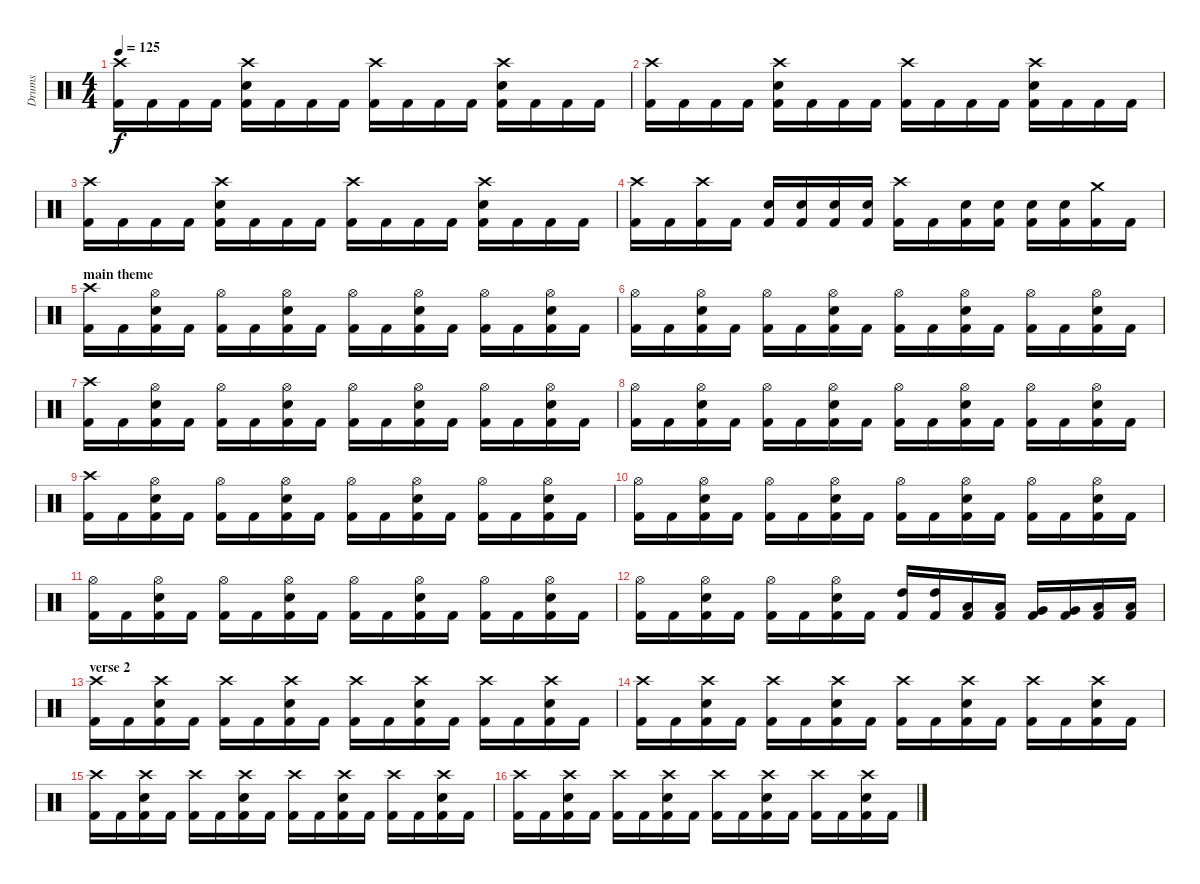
\track ("Drums" "Drums") {instrument percussion}
\staff {score}
\articulation defaults
\ts (4 4)
\tempo 125
\clef neutral
\ks c
("Crash high (hit)" "Kick (hit) 2").16{dy f} "Kick (hit) 2".16 "Kick (hit) 2".16 "Kick (hit) 2".16 ("Crash high (hit)" "Electric Snare (hit)" "Kick (hit) 2").16 "Kick (hit) 2".16 "Kick (hit) 2".16 "Kick (hit) 2".16 ("Crash high (hit)" "Kick (hit) 2").16 "Kick (hit) 2".16 "Kick (hit) 2".16 "Kick (hit) 2".16 ("Crash high (hit)" "Electric Snare (hit)" "Kick (hit) 2").16 "Kick (hit) 2".16 "Kick (hit) 2".16 "Kick (hit) 2".16 |
("Crash high (hit)" "Kick (hit) 2").16 "Kick (hit) 2".16 "Kick (hit) 2".16 "Kick (hit) 2".16 ("Crash high (hit)" "Electric Snare (hit)" "Kick (hit) 2").16 "Kick (hit) 2".16 "Kick (hit) 2".16 "Kick (hit) 2".16 ("Crash high (hit)" "Kick (hit) 2").16 "Kick (hit) 2".16 "Kick (hit) 2".16 "Kick (hit) 2".16 ("Crash high (hit)" "Electric Snare (hit)" "Kick (hit) 2").16 "Kick (hit) 2".16 "Kick (hit) 2".16 "Kick (hit) 2".16 |
("Crash high (hit)" "Kick (hit) 2").16 "Kick (hit) 2".16 "Kick (hit) 2".16 "Kick (hit) 2".16 ("Crash high (hit)" "Electric Snare (hit)" "Kick (hit) 2").16 "Kick (hit) 2".16 "Kick (hit) 2".16 "Kick (hit) 2".16 ("Crash high (hit)" "Kick (hit) 2").16 "Kick (hit) 2".16 "Kick (hit) 2".16 "Kick (hit) 2".16 ("Crash high (hit)" "Electric Snare (hit)" "Kick (hit) 2").16 "Kick (hit) 2".16 "Kick (hit) 2".16 "Kick (hit) 2".16 |
("Crash high (hit)" "Kick (hit) 2").16 "Kick (hit) 2".16 ("Crash high (hit)" "Kick (hit) 2").16 "Kick (hit) 2".16 ("Electric Snare (hit)" "Kick (hit) 2").16 ("Electric Snare (hit)" "Kick (hit) 2").16 ("Electric Snare (hit)" "Kick (hit) 2").16 ("Electric Snare (hit)" "Kick (hit) 2").16 ("Crash high (hit)" "Kick (hit) 2").16 "Kick (hit) 2".16 ("Electric Snare (hit)" "Kick (hit) 2").16 ("Electric Snare (hit)" "Kick (hit) 2").16 ("Electric Snare (hit)" "Kick (hit) 2").16 ("Electric Snare (hit)" "Kick (hit) 2").16 ("Crash medium (hit)" "Kick (hit) 2").16 "Kick (hit) 2".16 |
\section ("" "main theme")
("Crash high (hit)" "Kick (hit) 2").16 "Kick (hit) 2".16 ("Hi-Hat (open)" "Electric Snare (hit)" "Kick (hit) 2").16 "Kick (hit) 2".16 ("Hi-Hat (open)" "Kick (hit) 2").16 "Kick (hit) 2".16 ("Hi-Hat (open)" "Electric Snare (hit)" "Kick (hit) 2").16 "Kick (hit) 2".16 ("Hi-Hat (open)" "Kick (hit) 2").16 "Kick (hit) 2".16 ("Hi-Hat (open)" "Electric Snare (hit)" "Kick (hit) 2").16 "Kick (hit) 2".16 ("Hi-Hat (open)" "Kick (hit) 2").16 "Kick (hit) 2".16 ("Hi-Hat (open)" "Electric Snare (hit)" "Kick (hit) 2").16 "Kick (hit) 2".16 |
("Hi-Hat (open)" "Kick (hit) 2").16 "Kick (hit) 2".16 ("Hi-Hat (open)" "Electric Snare (hit)" "Kick (hit) 2").16 "Kick (hit) 2".16 ("Hi-Hat (open)" "Kick (hit) 2").16 "Kick (hit) 2".16 ("Hi-Hat (open)" "Electric Snare (hit)" "Kick (hit) 2").16 "Kick (hit) 2".16 ("Hi-Hat (open)" "Kick (hit) 2").16 "Kick (hit) 2".16 ("Hi-Hat (open)" "Electric Snare (hit)" "Kick (hit) 2").16 "Kick (hit) 2".16 ("Hi-Hat (open)" "Kick (hit) 2").16 "Kick (hit) 2".16 ("Hi-Hat (open)" "Electric Snare (hit)" "Kick (hit) 2").16 "Kick (hit) 2".16 |
("Crash high (hit)" "Kick (hit) 2").16 "Kick (hit) 2".16 ("Hi-Hat (open)" "Electric Snare (hit)" "Kick (hit) 2").16 "Kick (hit) 2".16 ("Hi-Hat (open)" "Kick (hit) 2").16 "Kick (hit) 2".16 ("Hi-Hat (open)" "Electric Snare (hit)" "Kick (hit) 2").16 "Kick (hit) 2".16 ("Hi-Hat (open)" "Kick (hit) 2").16 "Kick (hit) 2".16 ("Hi-Hat (open)" "Electric Snare (hit)" "Kick (hit) 2").16 "Kick (hit) 2".16 ("Hi-Hat (open)" "Kick (hit) 2").16 "Kick (hit) 2".16 ("Hi-Hat (open)" "Electric Snare (hit)" "Kick (hit) 2").16 "Kick (hit) 2".16 |
("Hi-Hat (open)" "Kick (hit) 2").16 "Kick (hit) 2".16 ("Hi-Hat (open)" "Electric Snare (hit)" "Kick (hit) 2").16 "Kick (hit) 2".16 ("Hi-Hat (open)" "Kick (hit) 2").16 "Kick (hit) 2".16 ("Hi-Hat (open)" "Electric Snare (hit)" "Kick (hit) 2").16 "Kick (hit) 2".16 ("Hi-Hat (open)" "Kick (hit) 2").16 "Kick (hit) 2".16 ("Hi-Hat (open)" "Electric Snare (hit)" "Kick (hit) 2").16 "Kick (hit) 2".16 ("Hi-Hat (open)" "Kick (hit) 2").16 "Kick (hit) 2".16 ("Hi-Hat (open)" "Electric Snare (hit)" "Kick (hit) 2").16 "Kick (hit) 2".16 |
("Crash high (hit)" "Kick (hit) 2").16 "Kick (hit) 2".16 ("Hi-Hat (open)" "Electric Snare (hit)" "Kick (hit) 2").16 "Kick (hit) 2".16 ("Hi-Hat (open)" "Kick (hit) 2").16 "Kick (hit) 2".16 ("Hi-Hat (open)" "Electric Snare (hit)" "Kick (hit) 2").16 "Kick (hit) 2".16 ("Hi-Hat (open)" "Kick (hit) 2").16 "Kick (hit) 2".16 ("Hi-Hat (open)" "Electric Snare (hit)" "Kick (hit) 2").16 "Kick (hit) 2".16 ("Hi-Hat (open)" "Kick (hit) 2").16 "Kick (hit) 2".16 ("Hi-Hat (open)" "Electric Snare (hit)" "Kick (hit) 2").16 "Kick (hit) 2".16 |
("Hi-Hat (open)" "Kick (hit) 2").16 "Kick (hit) 2".16 ("Hi-Hat (open)" "Electric Snare (hit)" "Kick (hit) 2").16 "Kick (hit) 2".16 ("Hi-Hat (open)" "Kick (hit) 2").16 "Kick (hit) 2".16 ("Hi-Hat (open)" "Electric Snare (hit)" "Kick (hit) 2").16 "Kick (hit) 2".16 ("Hi-Hat (open)" "Kick (hit) 2").16 "Kick (hit) 2".16 ("Hi-Hat (open)" "Electric Snare (hit)" "Kick (hit) 2").16 "Kick (hit) 2".16 ("Hi-Hat (open)" "Kick (hit) 2").16 "Kick (hit) 2".16 ("Hi-Hat (open)" "Electric Snare (hit)" "Kick (hit) 2").16 "Kick (hit) 2".16 |
("Hi-Hat (open)" "Kick (hit) 2").16 "Kick (hit) 2".16 ("Hi-Hat (open)" "Electric Snare (hit)" "Kick (hit) 2").16 "Kick (hit) 2".16 ("Hi-Hat (open)" "Kick (hit) 2").16 "Kick (hit) 2".16 ("Hi-Hat (open)" "Electric Snare (hit)" "Kick (hit) 2").16 "Kick (hit) 2".16 ("Hi-Hat (open)" "Kick (hit) 2").16 "Kick (hit) 2".16 ("Hi-Hat (open)" "Electric Snare (hit)" "Kick (hit) 2").16 "Kick (hit) 2".16 ("Hi-Hat (open)" "Kick (hit) 2").16 "Kick (hit) 2".16 ("Hi-Hat (open)" "Electric Snare (hit)" "Kick (hit) 2").16 "Kick (hit) 2".16 |
("Hi-Hat (open)" "Kick (hit) 2").16 "Kick (hit) 2".16 ("Hi-Hat (open)" "Electric Snare (hit)" "Kick (hit) 2").16 "Kick (hit) 2".16 ("Hi-Hat (open)" "Kick (hit) 2").16 "Kick (hit) 2".16 ("Hi-Hat (open)" "Electric Snare (hit)" "Kick (hit) 2").16 "Kick (hit) 2".16 ("High Tom (hit)" "Kick (hit) 2").16 ("High Tom (hit)" "Kick (hit) 2").16 ("Low Tom (hit)" "Kick (hit) 2").16 ("Low Tom (hit)" "Kick (hit) 2").16 ("Very Low Tom (hit)" "Kick (hit) 2").16 ("Very Low Tom (hit)" "Kick (hit) 2").16 ("Low Floor Tom (hit)" "Kick (hit) 2").16 ("Low Floor Tom (hit)" "Kick (hit) 2").16 |
\section ("" "verse 2")
("Crash high (hit)" "Kick (hit) 2").16 "Kick (hit) 2".16 ("Crash high (hit)" "Electric Snare (hit)" "Kick (hit) 2").16 "Kick (hit) 2".16 ("Crash high (hit)" "Kick (hit) 2").16 "Kick (hit) 2".16 ("Crash high (hit)" "Electric Snare (hit)" "Kick (hit) 2").16 "Kick (hit) 2".16 ("Crash high (hit)" "Kick (hit) 2").16 "Kick (hit) 2".16 ("Crash high (hit)" "Electric Snare (hit)" "Kick (hit) 2").16 "Kick (hit) 2".16 ("Crash high (hit)" "Kick (hit) 2").16 "Kick (hit) 2".16 ("Crash high (hit)" "Electric Snare (hit)" "Kick (hit) 2").16 "Kick (hit) 2".16 |
("Crash high (hit)" "Kick (hit) 2").16 "Kick (hit) 2".16 ("Crash high (hit)" "Electric Snare (hit)" "Kick (hit) 2").16 "Kick (hit) 2".16 ("Crash high (hit)" "Kick (hit) 2").16 "Kick (hit) 2".16 ("Crash high (hit)" "Electric Snare (hit)" "Kick (hit) 2").16 "Kick (hit) 2".16 ("Crash high (hit)" "Kick (hit) 2").16 "Kick (hit) 2".16 ("Crash high (hit)" "Electric Snare (hit)" "Kick (hit) 2").16 "Kick (hit) 2".16 ("Crash high (hit)" "Kick (hit) 2").16 "Kick (hit) 2".16 ("Crash high (hit)" "Electric Snare (hit)" "Kick (hit) 2").16 "Kick (hit) 2".16 |
("Crash high (hit)" "Kick (hit) 2").16 "Kick (hit) 2".16 ("Crash high (hit)" "Electric Snare (hit)" "Kick (hit) 2").16 "Kick (hit) 2".16 ("Crash high (hit)" "Kick (hit) 2").16 "Kick (hit) 2".16 ("Crash high (hit)" "Electric Snare (hit)" "Kick (hit) 2").16 "Kick (hit) 2".16 ("Crash high (hit)" "Kick (hit) 2").16 "Kick (hit) 2".16 ("Crash high (hit)" "Electric Snare (hit)" "Kick (hit) 2").16 "Kick (hit) 2".16 ("Crash high (hit)" "Kick (hit) 2").16 "Kick (hit) 2".16 ("Crash high (hit)" "Electric Snare (hit)" "Kick (hit) 2").16 "Kick (hit) 2".16 |
("Crash high (hit)" "Kick (hit) 2").16 "Kick (hit) 2".16 ("Crash high (hit)" "Electric Snare (hit)" "Kick (hit) 2").16 "Kick (hit) 2".16 ("Crash high (hit)" "Kick (hit) 2").16 "Kick (hit) 2".16 ("Crash high (hit)" "Electric Snare (hit)" "Kick (hit) 2").16 "Kick (hit) 2".16 ("Crash high (hit)" "Kick (hit) 2").16 "Kick (hit) 2".16 ("Crash high (hit)" "Electric Snare (hit)" "Kick (hit) 2").16 "Kick (hit) 2".16 ("Crash high (hit)" "Kick (hit) 2").16 "Kick (hit) 2".16 ("Crash high (hit)" "Electric Snare (hit)" "Kick (hit) 2").16 "Kick (hit) 2".16
